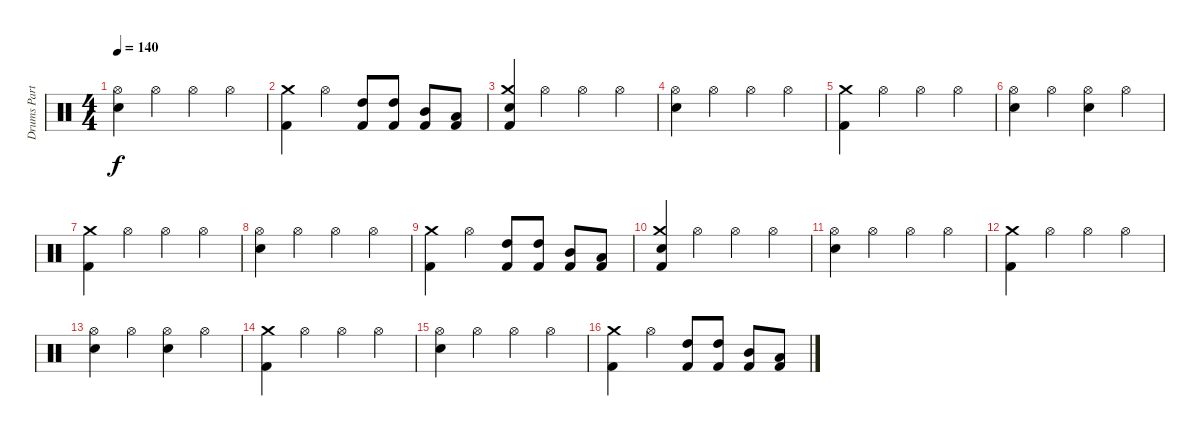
\track ("Drums Part" "Drums Part") {instrument percussion}
\staff {score}
\articulation defaults
\ts (4 4)
\tempo 140
\clef neutral
\ks c
("Hi-Hat (open)" "Electric Snare (hit)").4{dy f} "Hi-Hat (open)".4 "Hi-Hat (open)".4 "Hi-Hat (open)".4 |
("Crash medium (hit)" "Kick (hit) 2").4 "Hi-Hat (open)".4 ("High Tom (hit)" "Kick (hit) 2").8 ("High Tom (hit)" "Kick (hit) 2").8 ("Mid Tom (hit)" "Kick (hit) 2").8 ("Low Tom (hit)" "Kick (hit) 2").8 |
("Crash medium (hit)" "Electric Snare (hit)" "Kick (hit) 2").4 "Hi-Hat (open)".4 "Hi-Hat (open)".4 "Hi-Hat (open)".4 |
("Hi-Hat (open)" "Electric Snare (hit)").4 "Hi-Hat (open)".4 "Hi-Hat (open)".4 "Hi-Hat (open)".4 |
("Crash medium (hit)" "Kick (hit) 2").4 "Hi-Hat (open)".4 "Hi-Hat (open)".4 "Hi-Hat (open)".4 |
("Hi-Hat (open)" "Electric Snare (hit)").4 "Hi-Hat (open)".4 ("Hi-Hat (open)" "Electric Snare (hit)").4 "Hi-Hat (open)".4 |
("Crash medium (hit)" "Kick (hit) 2").4 "Hi-Hat (open)".4 "Hi-Hat (open)".4 "Hi-Hat (open)".4 |
("Hi-Hat (open)" "Electric Snare (hit)").4 "Hi-Hat (open)".4 "Hi-Hat (open)".4 "Hi-Hat (open)".4 |
("Crash medium (hit)" "Kick (hit) 2").4 "Hi-Hat (open)".4 ("High Tom (hit)" "Kick (hit) 2").8 ("High Tom (hit)" "Kick (hit) 2").8 ("Mid Tom (hit)" "Kick (hit) 2").8 ("Low Tom (hit)" "Kick (hit) 2").8 |
("Crash medium (hit)" "Electric Snare (hit)" "Kick (hit) 2").4 "Hi-Hat (open)".4 "Hi-Hat (open)".4 "Hi-Hat (open)".4 |
("Hi-Hat (open)" "Electric Snare (hit)").4 "Hi-Hat (open)".4 "Hi-Hat (open)".4 "Hi-Hat (open)".4 |
("Crash medium (hit)" "Kick (hit) 2").4 "Hi-Hat (open)".4 "Hi-Hat (open)".4 "Hi-Hat (open)".4 |
("Hi-Hat (open)" "Electric Snare (hit)").4 "Hi-Hat (open)".4 ("Hi-Hat (open)" "Electric Snare (hit)").4 "Hi-Hat (open)".4 |
("Crash medium (hit)" "Kick (hit) 2").4 "Hi-Hat (open)".4 "Hi-Hat (open)".4 "Hi-Hat (open)".4 |
("Hi-Hat (open)" "Electric Snare (hit)").4 "Hi-Hat (open)".4 "Hi-Hat (open)".4 "Hi-Hat (open)".4 |
("Crash medium (hit)" "Kick (hit) 2").4 "Hi-Hat (open)".4 ("High Tom (hit)" "Kick (hit) 2").8 ("High Tom (hit)" "Kick (hit) 2").8 ("Mid Tom (hit)" "Kick (hit) 2").8 ("Low Tom (hit)" "Kick (hit) 2").8
